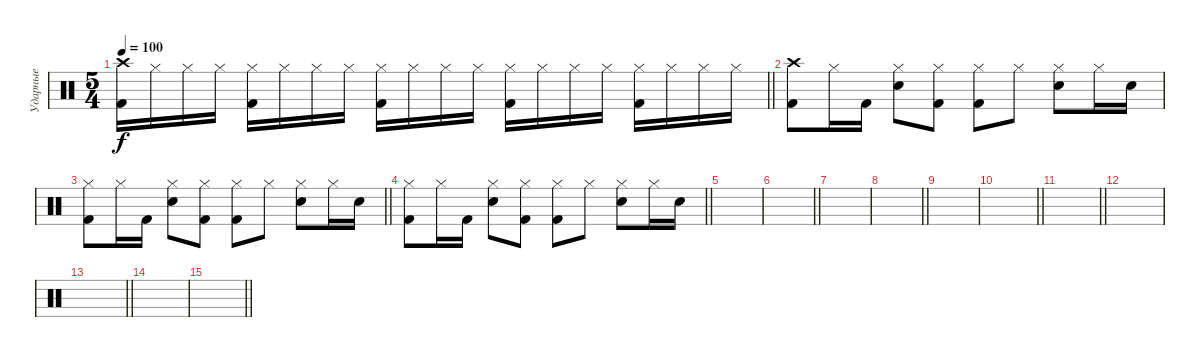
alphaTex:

\track ("Ударные" "Ударные") {instrument percussion}
\staff {score}
\articulation defaults
\ts (5 4)
\tempo 100
\clef neutral
\barLineRight lightlight
\ks c
("Crash high (hit)" "Kick (hit) 2").16{dy f} "Hi-Hat (closed)".16 "Hi-Hat (closed)".16 "Hi-Hat (closed)".16 ("Hi-Hat (closed)" "Kick (hit) 2").16 "Hi-Hat (closed)".16 "Hi-Hat (closed)".16 "Hi-Hat (closed)".16 ("Hi-Hat (closed)" "Kick (hit) 2").16 "Hi-Hat (closed)".16 "Hi-Hat (closed)".16 "Hi-Hat (closed)".16 ("Hi-Hat (closed)" "Kick (hit) 2").16 "Hi-Hat (closed)".16 "Hi-Hat (closed)".16 "Hi-Hat (closed)".16 ("Hi-Hat (closed)" "Kick (hit) 2").16 "Hi-Hat (closed)".16 "Hi-Hat (closed)".16 "Hi-Hat (closed)".16 |
("Kick (hit) 2" "Crash high (hit)").8 "Hi-Hat (closed)".16 "Kick (hit) 2".16 ("Snare (hit) 2" "Hi-Hat (closed)").8 ("Kick (hit) 2" "Hi-Hat (closed)").8 ("Kick (hit) 2" "Hi-Hat (closed)").8 "Hi-Hat (closed)".8 ("Snare (hit) 2" "Hi-Hat (closed)").8 "Hi-Hat (closed)".16 "Snare (hit) 2".16 |
\barLineRight lightlight
("Kick (hit) 2" "Hi-Hat (closed)").8 "Hi-Hat (closed)".16 "Kick (hit) 2".16 ("Snare (hit) 2" "Hi-Hat (closed)").8 ("Kick (hit) 2" "Hi-Hat (closed)").8 ("Kick (hit) 2" "Hi-Hat (closed)").8 "Hi-Hat (closed)".8 ("Snare (hit) 2" "Hi-Hat (closed)").8 "Hi-Hat (closed)".16 "Snare (hit) 2".16 |
\barLineRight lightlight
("Kick (hit) 2" "Hi-Hat (closed)").8 "Hi-Hat (closed)".16 "Kick (hit) 2".16 ("Snare (hit) 2" "Hi-Hat (closed)").8 ("Kick (hit) 2" "Hi-Hat (closed)").8 ("Kick (hit) 2" "Hi-Hat (closed)").8 "Hi-Hat (closed)".8 ("Snare (hit) 2" "Hi-Hat (closed)").8 "Hi-Hat (closed)".16 "Snare (hit) 2".16 |
|
\barLineRight lightlight
|
|
\barLineRight lightlight
|
|
\barLineRight lightlight
|
\barLineRight lightlight
|
|
\barLineRight lightlight
|
|
\barLineRight lightlight
